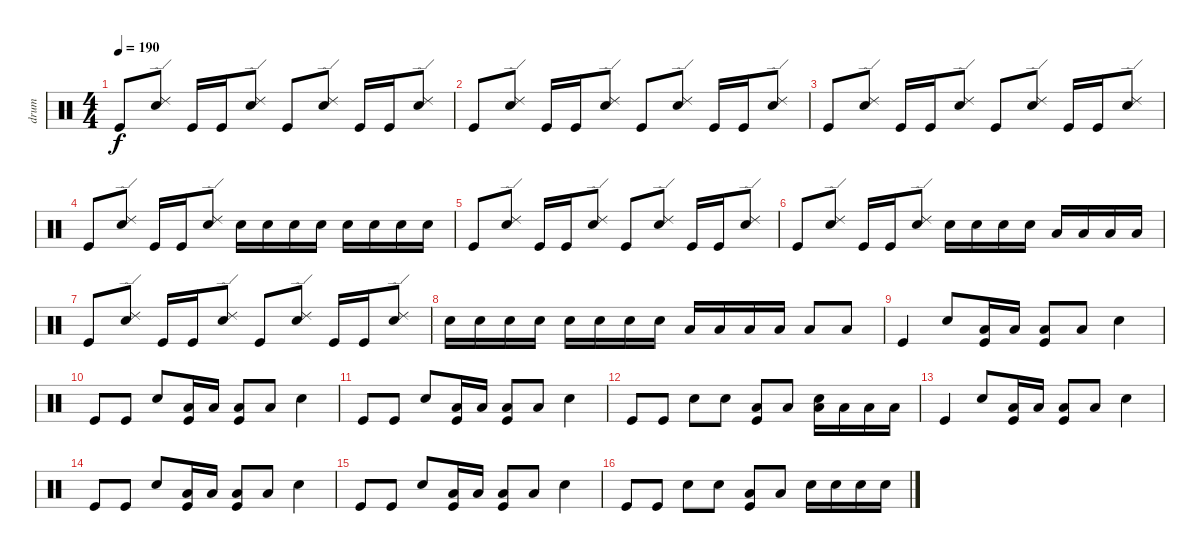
\track ("drum" "drum") {instrument percussion}
\staff {score}
\articulation defaults
\ts (4 4)
\tempo 190
\clef neutral
\ks c "Kick (hit)".8{dy f}
("Ride (edge) 2" "Snare (hit) 2").8 "Kick (hit)".16 "Kick (hit)".16 ("Ride (edge) 2" "Snare (hit) 2").8 "Kick (hit)".8 ("Ride (edge) 2" "Snare (hit) 2").8 "Kick (hit)".16 "Kick (hit)".16 ("Ride (edge) 2" "Snare (hit) 2").8 |
"Kick (hit)".8 ("Ride (edge) 2" "Snare (hit) 2").8 "Kick (hit)".16 "Kick (hit)".16 ("Ride (edge) 2" "Snare (hit) 2").8 "Kick (hit)".8 ("Ride (edge) 2" "Snare (hit) 2").8 "Kick (hit)".16 "Kick (hit)".16 ("Ride (edge) 2" "Snare (hit) 2").8 |
"Kick (hit)".8 ("Ride (edge) 2" "Snare (hit) 2").8 "Kick (hit)".16 "Kick (hit)".16 ("Ride (edge) 2" "Snare (hit) 2").8 "Kick (hit)".8 ("Ride (edge) 2" "Snare (hit) 2").8 "Kick (hit)".16 "Kick (hit)".16 ("Ride (edge) 2" "Snare (hit) 2").8 |
"Kick (hit)".8 ("Ride (edge) 2" "Snare (hit) 2").8 "Kick (hit)".16 "Kick (hit)".16 ("Ride (edge) 2" "Snare (hit) 2").8 "Snare (hit) 2".16 "Snare (hit) 2".16 "Snare (hit) 2".16 "Snare (hit) 2".16 "Snare (hit) 2".16 "Snare (hit) 2".16 "Snare (hit) 2".16 "Snare (hit) 2".16 |
"Kick (hit)".8 ("Ride (edge) 2" "Snare (hit) 2").8 "Kick (hit)".16 "Kick (hit)".16 ("Ride (edge) 2" "Snare (hit) 2").8 "Kick (hit)".8 ("Ride (edge) 2" "Snare (hit) 2").8 "Kick (hit)".16 "Kick (hit)".16 ("Ride (edge) 2" "Snare (hit) 2").8 |
"Kick (hit)".8 ("Ride (edge) 2" "Snare (hit) 2").8 "Kick (hit)".16 "Kick (hit)".16 ("Ride (edge) 2" "Snare (hit) 2").8 "Snare (hit) 2".16 "Snare (hit) 2".16 "Snare (hit) 2".16 "Snare (hit) 2".16 "Low Tom (hit)".16 "Low Tom (hit)".16 "Low Tom (hit)".16 "Low Tom (hit)".16 |
"Kick (hit)".8 ("Ride (edge) 2" "Snare (hit) 2").8 "Kick (hit)".16 "Kick (hit)".16 ("Ride (edge) 2" "Snare (hit) 2").8 "Kick (hit)".8 ("Ride (edge) 2" "Snare (hit) 2").8 "Kick (hit)".16 "Kick (hit)".16 ("Ride (edge) 2" "Snare (hit) 2").8 |
"Snare (hit) 2".16 "Snare (hit) 2".16 "Snare (hit) 2".16 "Snare (hit) 2".16 "Snare (hit) 2".16 "Snare (hit) 2".16 "Snare (hit) 2".16 "Snare (hit) 2".16 "Low Tom (hit)".16 "Low Tom (hit)".16 "Low Tom (hit)".16 "Low Tom (hit)".16 "Low Tom (hit)".8 "Low Tom (hit)".8 |
"Kick (hit)".4 "Snare (hit) 2".8 ("Low Tom (hit)" "Kick (hit)").16 "Low Tom (hit)".16 ("Low Tom (hit)" "Kick (hit)").8 "Low Tom (hit)".8 "Snare (hit) 2".4 |
"Kick (hit)".8 "Kick (hit)".8 "Snare (hit) 2".8 ("Low Tom (hit)" "Kick (hit)").16 "Low Tom (hit)".16 ("Low Tom (hit)" "Kick (hit)").8 "Low Tom (hit)".8 "Snare (hit) 2".4 |
"Kick (hit)".8 "Kick (hit)".8 "Snare (hit) 2".8 ("Low Tom (hit)" "Kick (hit)").16 "Low Tom (hit)".16 ("Low Tom (hit)" "Kick (hit)").8 "Low Tom (hit)".8 "Snare (hit) 2".4 |
"Kick (hit)".8 "Kick (hit)".8 "Snare (hit) 2".8 "Snare (hit) 2".8 ("Low Tom (hit)" "Kick (hit)").8 "Low Tom (hit)".8 ("Low Tom (hit)" "Snare (hit) 2").16 "Low Tom (hit)".16 "Low Tom (hit)".16 "Low Tom (hit)".16 |
"Kick (hit)".4 "Snare (hit) 2".8 ("Low Tom (hit)" "Kick (hit)").16 "Low Tom (hit)".16 ("Low Tom (hit)" "Kick (hit)").8 "Low Tom (hit)".8 "Snare (hit) 2".4 |
"Kick (hit)".8 "Kick (hit)".8 "Snare (hit) 2".8 ("Low Tom (hit)" "Kick (hit)").16 "Low Tom (hit)".16 ("Low Tom (hit)" "Kick (hit)").8 "Low Tom (hit)".8 "Snare (hit) 2".4 |
"Kick (hit)".8 "Kick (hit)".8 "Snare (hit) 2".8 ("Low Tom (hit)" "Kick (hit)").16 "Low Tom (hit)".16 ("Low Tom (hit)" "Kick (hit)").8 "Low Tom (hit)".8 "Snare (hit) 2".4 |
"Kick (hit)".8 "Kick (hit)".8 "Snare (hit) 2".8 "Snare (hit) 2".8 ("Low Tom (hit)" "Kick (hit)").8 "Low Tom (hit)".8 "Snare (hit) 2".16 "Snare (hit) 2".16 "Snare (hit) 2".16 "Snare (hit) 2".16
